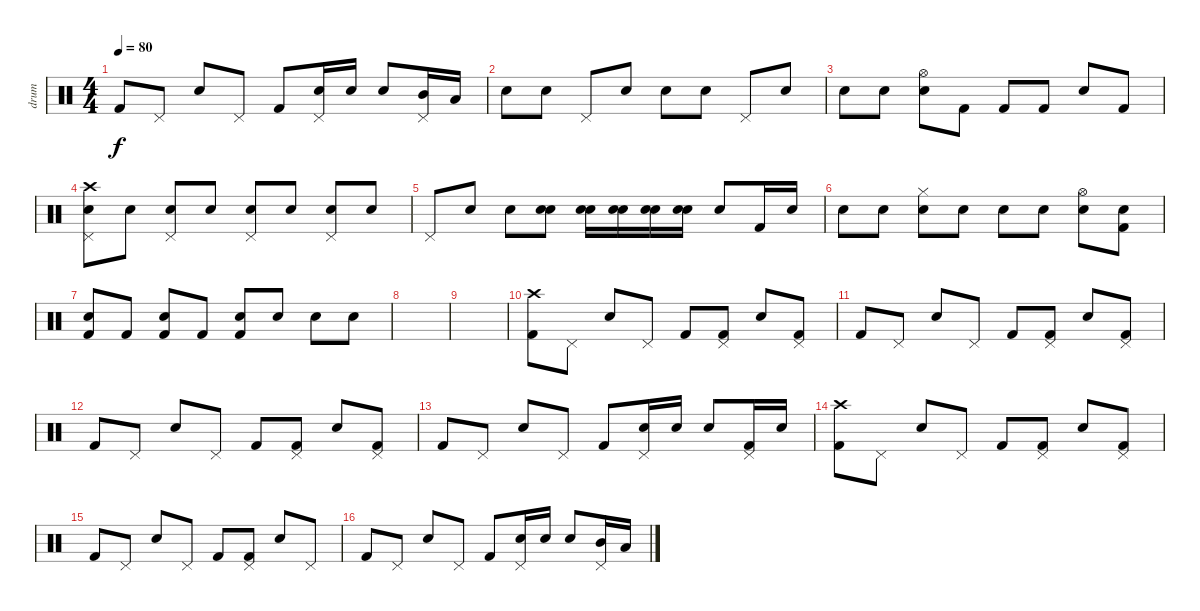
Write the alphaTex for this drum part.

\track ("drum" "drum") {instrument percussion}
\staff {score}
\articulation defaults
\ts (4 4)
\tempo 80
\clef neutral
\ks c "Kick (hit) 2".8{dy f} "Pedal Hi-Hat (hit)".8 "Snare (hit) 2".8 "Pedal Hi-Hat (hit)".8 "Kick (hit) 2".8
("Pedal Hi-Hat (hit)" "Snare (hit) 2").16 "Snare (hit) 2".16 "Snare (hit) 2".8 ("Pedal Hi-Hat (hit)" "Mid Tom (hit)").16 "Low Tom (hit)".16 |
"Snare (hit)".8 "Snare (hit)".8 "Pedal Hi-Hat (hit)".8 "Snare (hit)".8 "Snare (hit)".8 "Snare (hit)".8 "Pedal Hi-Hat (hit)".8 "Snare (hit)".8 |
"Snare (hit)".8 "Snare (hit)".8 ("Hi-Hat (open)" "Snare (hit)").8 "Kick (hit) 2".8 "Kick (hit) 2".8 "Kick (hit) 2".8 "Snare (hit) 2".8 "Kick (hit) 2".8 |
("Crash high (hit)" "Pedal Hi-Hat (hit)" "Snare (hit)").8 "Snare (hit)".8 ("Pedal Hi-Hat (hit)" "Snare (hit)").8 "Snare (hit)".8 ("Pedal Hi-Hat (hit)" "Snare (hit)").8 "Snare (hit)".8 ("Pedal Hi-Hat (hit)" "Snare (hit)").8 "Snare (hit)".8 |
"Pedal Hi-Hat (hit)".8 "Snare (hit)".8 "Snare (hit)".8 ("Snare (hit)" "Snare (hit) 2").8 ("Snare (hit)" "Snare (hit) 2").16{volume 2} ("Snare (hit)" "Snare (hit) 2").16{volume 13} ("Snare (hit)" "Snare (hit) 2").16 ("Snare (hit)" "Snare (hit) 2").16 "Snare (hit) 2".8 "Kick (hit) 2".16 "Snare (hit) 2".16 |
"Snare (hit)".8 "Snare (hit)".8 ("Hi-Hat (closed)" "Snare (hit)").8 "Snare (hit)".8 "Snare (hit)".8 "Snare (hit)".8 ("Hi-Hat (open)" "Snare (hit)").8 ("Snare (hit)" "Kick (hit) 2").8 |
("Snare (hit)" "Kick (hit) 2").8 "Kick (hit) 2".8 ("Snare (hit) 2" "Kick (hit) 2").8 "Kick (hit) 2".8 ("Snare (hit) 2" "Kick (hit) 2").8 "Snare (hit)".8 "Snare (hit)".8 "Snare (hit)".8 |
|
|
("Crash high (hit)" "Kick (hit) 2").8 "Pedal Hi-Hat (hit)".8 "Snare (hit) 2".8 "Pedal Hi-Hat (hit)".8 "Kick (hit) 2".8 ("Pedal Hi-Hat (hit)" "Kick (hit) 2").8 "Snare (hit) 2".8 ("Pedal Hi-Hat (hit)" "Kick (hit) 2").8 |
"Kick (hit) 2".8 "Pedal Hi-Hat (hit)".8 "Snare (hit) 2".8 "Pedal Hi-Hat (hit)".8 "Kick (hit) 2".8 ("Pedal Hi-Hat (hit)" "Kick (hit) 2").8 "Snare (hit) 2".8 ("Pedal Hi-Hat (hit)" "Kick (hit) 2").8 |
"Kick (hit) 2".8 "Pedal Hi-Hat (hit)".8 "Snare (hit) 2".8 "Pedal Hi-Hat (hit)".8 "Kick (hit) 2".8 ("Pedal Hi-Hat (hit)" "Kick (hit) 2").8 "Snare (hit) 2".8 ("Pedal Hi-Hat (hit)" "Kick (hit) 2").8 |
"Kick (hit) 2".8 "Pedal Hi-Hat (hit)".8 "Snare (hit) 2".8 "Pedal Hi-Hat (hit)".8 "Kick (hit) 2".8 ("Pedal Hi-Hat (hit)" "Snare (hit) 2").16 "Snare (hit) 2".16 "Snare (hit) 2".8 ("Pedal Hi-Hat (hit)" "Kick (hit) 2").16 "Snare (hit) 2".16 |
("Crash high (hit)" "Kick (hit) 2").8 "Pedal Hi-Hat (hit)".8 "Snare (hit) 2".8 "Pedal Hi-Hat (hit)".8 "Kick (hit) 2".8 ("Pedal Hi-Hat (hit)" "Kick (hit) 2").8 "Snare (hit) 2".8 ("Pedal Hi-Hat (hit)" "Kick (hit) 2").8 |
"Kick (hit) 2".8 "Pedal Hi-Hat (hit)".8 "Snare (hit) 2".8 "Pedal Hi-Hat (hit)".8 "Kick (hit) 2".8 ("Pedal Hi-Hat (hit)" "Kick (hit) 2").8 "Snare (hit) 2".8 "Pedal Hi-Hat (hit)".8 |
"Kick (hit) 2".8 "Pedal Hi-Hat (hit)".8 "Snare (hit) 2".8 "Pedal Hi-Hat (hit)".8 "Kick (hit) 2".8 ("Pedal Hi-Hat (hit)" "Snare (hit) 2").16 "Snare (hit) 2".16 "Snare (hit) 2".8 ("Pedal Hi-Hat (hit)" "Mid Tom (hit)").16 "Low Tom (hit)".16
